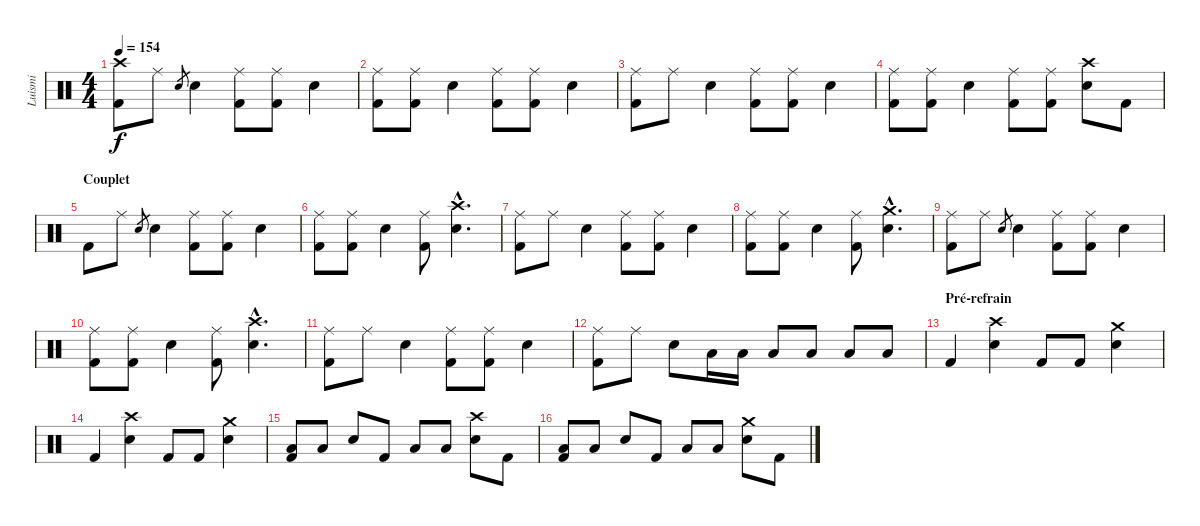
\track ("Luismi" "Luismi") {instrument percussion}
\staff {score}
\articulation defaults
\ts (4 4)
\tempo 154
\clef neutral
\ks c
("Crash high (hit)" "Kick (hit) 2").8{dy f} "Ride (middle)".8 "Electric Snare (hit)".8{gr} "Electric Snare (hit)".4 ("Ride (middle)" "Kick (hit) 2").8 ("Ride (middle)" "Kick (hit) 2").8 "Electric Snare (hit)".4 |
("Ride (middle)" "Kick (hit) 2").8 ("Ride (middle)" "Kick (hit) 2").8 "Electric Snare (hit)".4 ("Ride (middle)" "Kick (hit) 2").8 ("Ride (middle)" "Kick (hit) 2").8 "Electric Snare (hit)".4 |
("Ride (middle)" "Kick (hit) 2").8 "Ride (middle)".8 "Electric Snare (hit)".4 ("Ride (middle)" "Kick (hit) 2").8 ("Ride (middle)" "Kick (hit) 2").8 "Electric Snare (hit)".4 |
("Ride (middle)" "Kick (hit) 2").8 ("Ride (middle)" "Kick (hit) 2").8 "Electric Snare (hit)".4 ("Ride (middle)" "Kick (hit) 2").8 ("Ride (middle)" "Kick (hit) 2").8 ("Crash high (hit)" "Electric Snare (hit)").8 "Kick (hit) 2".8 |
\section ("" "Couplet")
"Kick (hit) 2".8 "Ride (middle)".8 "Electric Snare (hit)".8{gr} "Electric Snare (hit)".4 ("Ride (middle)" "Kick (hit) 2").8 ("Ride (middle)" "Kick (hit) 2").8 "Electric Snare (hit)".4 |
("Ride (middle)" "Kick (hit) 2").8 ("Ride (middle)" "Kick (hit) 2").8 "Electric Snare (hit)".4 ("Ride (middle)" "Kick (hit) 2").8 ("Crash high (hit)"{hac} "Electric Snare (hit)"{hac}).4{d} |
("Ride (middle)" "Kick (hit) 2").8 "Ride (middle)".8 "Electric Snare (hit)".4 ("Ride (middle)" "Kick (hit) 2").8 ("Ride (middle)" "Kick (hit) 2").8 "Electric Snare (hit)".4 |
("Ride (middle)" "Kick (hit) 2").8 ("Ride (middle)" "Kick (hit) 2").8 "Electric Snare (hit)".4 ("Ride (middle)" "Kick (hit) 2").8 ("Crash medium (hit)"{hac} "Electric Snare (hit)"{hac}).4{d} |
("Ride (middle)" "Kick (hit) 2").8 "Ride (middle)".8 "Electric Snare (hit)".8{gr} "Electric Snare (hit)".4 ("Ride (middle)" "Kick (hit) 2").8 ("Ride (middle)" "Kick (hit) 2").8 "Electric Snare (hit)".4 |
("Ride (middle)" "Kick (hit) 2").8 ("Ride (middle)" "Kick (hit) 2").8 "Electric Snare (hit)".4 ("Ride (middle)" "Kick (hit) 2").8 ("Crash high (hit)"{hac} "Electric Snare (hit)"{hac}).4{d} |
("Ride (middle)" "Kick (hit) 2").8 "Ride (middle)".8 "Electric Snare (hit)".4 ("Ride (middle)" "Kick (hit) 2").8 ("Ride (middle)" "Kick (hit) 2").8 "Electric Snare (hit)".4 |
("Ride (middle)" "Kick (hit) 2").8 "Ride (middle)".8 "Electric Snare (hit)".8 "Low Tom (hit)".16 "Low Tom (hit)".16 "Low Floor Tom (hit)".8 "Low Floor Tom (hit)".8 "Low Floor Tom (hit)".8 "Low Floor Tom (hit)".8 |
\section ("" "Pré-refrain")
"Kick (hit) 2".4 ("Crash high (hit)" "Electric Snare (hit)").4 "Kick (hit) 2".8 "Kick (hit) 2".8 ("Crash medium (hit)" "Electric Snare (hit)").4 |
"Kick (hit) 2".4 ("Crash high (hit)" "Electric Snare (hit)").4 "Kick (hit) 2".8 "Kick (hit) 2".8 ("Crash medium (hit)" "Electric Snare (hit)").4 |
("Low Floor Tom (hit)" "Kick (hit) 2").8 "Low Floor Tom (hit)".8 "Electric Snare (hit)".8 "Kick (hit) 2".8 "Low Floor Tom (hit)".8 "Low Floor Tom (hit)".8 ("Crash high (hit)" "Electric Snare (hit)").8 "Kick (hit) 2".8 |
("Low Floor Tom (hit)" "Kick (hit) 2").8 "Low Floor Tom (hit)".8 "Electric Snare (hit)".8 "Kick (hit) 2".8 "Low Floor Tom (hit)".8 "Low Floor Tom (hit)".8 ("Crash medium (hit)" "Electric Snare (hit)").8 "Kick (hit) 2".8
